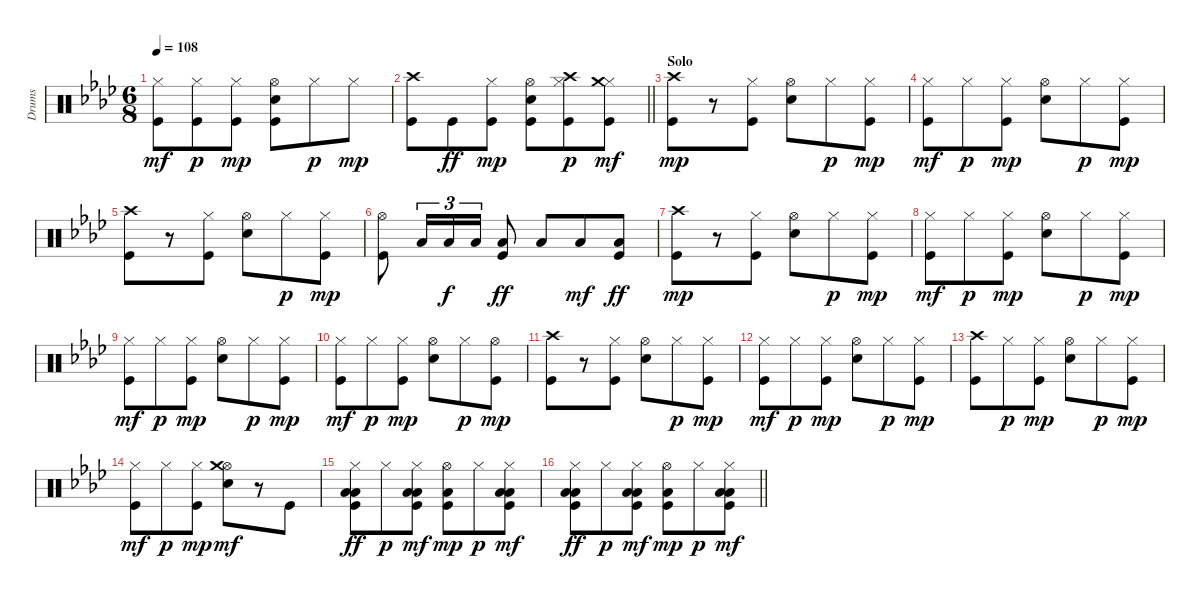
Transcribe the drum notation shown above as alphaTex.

\track ("Drums" "Drums") {instrument percussion}
\staff {score}
\articulation defaults
\ts (6 8)
\tempo 108
\clef neutral
\ks ab
("Kick (hit)" "Hi-Hat (closed)").8{dy mf} ("Kick (hit)" "Hi-Hat (closed)").8{dy p} ("Kick (hit)" "Hi-Hat (closed)").8{dy mp} ("Kick (hit)" "Electric Snare (hit)" "Hi-Hat (open)").8 "Hi-Hat (closed)".8{dy p} "Hi-Hat (closed)".8{dy mp} |
\barLineRight lightlight
("Kick (hit)" "Crash high (hit)").8 "Kick (hit)".8{dy ff} ("Kick (hit)" "Hi-Hat (closed)").8{dy mp} ("Kick (hit)" "Electric Snare (hit)" "Hi-Hat (open)").8 ("Kick (hit)" "Hi-Hat (closed)" "Crash high (hit)").8{dy p} ("Kick (hit)" "Hi-Hat (closed)" "Crash medium (hit)").8{dy mf} |
\section ("" "Solo")
("Kick (hit)" "Crash high (hit)").8{dy mp} r.8 ("Kick (hit)" "Hi-Hat (closed)").8 ("Electric Snare (hit)" "Hi-Hat (open)").8 "Hi-Hat (closed)".8{dy p} ("Kick (hit)" "Hi-Hat (closed)").8{dy mp} |
("Kick (hit)" "Hi-Hat (closed)").8{dy mf} "Hi-Hat (closed)".8{dy p} ("Kick (hit)" "Hi-Hat (closed)").8{dy mp} ("Electric Snare (hit)" "Hi-Hat (open)").8 "Hi-Hat (closed)".8{dy p} ("Kick (hit)" "Hi-Hat (closed)").8{dy mp} |
("Kick (hit)" "Crash high (hit)").8 r.8 ("Kick (hit)" "Hi-Hat (closed)").8 ("Electric Snare (hit)" "Hi-Hat (open)").8 "Hi-Hat (closed)".8{dy p} ("Kick (hit)" "Hi-Hat (closed)").8{dy mp} |
("Kick (hit)" "Hi-Hat (open)").8 "Low Tom (hit)".16{tu (3 2)} "Low Tom (hit)".16{tu (3 2) dy f} "Low Tom (hit)".16{tu (3 2)} ("Kick (hit)" "Low Tom (hit)").8{dy ff} "Low Floor Tom (hit)".8 "Low Floor Tom (hit)".8{dy mf} ("Kick (hit)" "Low Floor Tom (hit)").8{dy ff} |
("Kick (hit)" "Crash high (hit)").8{dy mp} r.8 ("Kick (hit)" "Hi-Hat (closed)").8 ("Electric Snare (hit)" "Hi-Hat (open)").8 "Hi-Hat (closed)".8{dy p} ("Kick (hit)" "Hi-Hat (closed)").8{dy mp} |
("Kick (hit)" "Hi-Hat (closed)").8{dy mf} "Hi-Hat (closed)".8{dy p} ("Kick (hit)" "Hi-Hat (closed)").8{dy mp} ("Electric Snare (hit)" "Hi-Hat (open)").8 "Hi-Hat (closed)".8{dy p} ("Kick (hit)" "Hi-Hat (closed)").8{dy mp} |
("Kick (hit)" "Hi-Hat (closed)").8{dy mf} "Hi-Hat (closed)".8{dy p} ("Kick (hit)" "Hi-Hat (closed)").8{dy mp} ("Electric Snare (hit)" "Hi-Hat (open)").8 "Hi-Hat (closed)".8{dy p} ("Kick (hit)" "Hi-Hat (closed)").8{dy mp} |
("Kick (hit)" "Hi-Hat (closed)").8{dy mf} "Hi-Hat (closed)".8{dy p} ("Kick (hit)" "Hi-Hat (closed)").8{dy mp} ("Electric Snare (hit)" "Hi-Hat (open)").8 "Hi-Hat (closed)".8{dy p} ("Kick (hit)" "Hi-Hat (open)").8{dy mp} |
("Kick (hit)" "Crash high (hit)").8 r.8 ("Kick (hit)" "Hi-Hat (closed)").8 ("Electric Snare (hit)" "Hi-Hat (open)").8 "Hi-Hat (closed)".8{dy p} ("Kick (hit)" "Hi-Hat (closed)").8{dy mp} |
("Kick (hit)" "Hi-Hat (closed)").8{dy mf} "Hi-Hat (closed)".8{dy p} ("Kick (hit)" "Hi-Hat (closed)").8{dy mp} ("Electric Snare (hit)" "Hi-Hat (open)").8 "Hi-Hat (closed)".8{dy p} ("Kick (hit)" "Hi-Hat (closed)").8{dy mp} |
("Kick (hit)" "Crash high (hit)").8 "Hi-Hat (closed)".8{dy p} ("Kick (hit)" "Hi-Hat (closed)").8{dy mp} ("Electric Snare (hit)" "Hi-Hat (open)").8 "Hi-Hat (closed)".8{dy p} ("Kick (hit)" "Hi-Hat (closed)").8{dy mp} |
("Kick (hit)" "Hi-Hat (closed)").8{dy mf} "Hi-Hat (closed)".8{dy p} ("Kick (hit)" "Hi-Hat (closed)").8{dy mp} ("Electric Snare (hit)" "Hi-Hat (open)" "Crash medium (hit)").8{dy mf} r.8 "Kick (hit)".8 |
("Kick (hit)" "Low Floor Tom (hit)" "Hi-Hat (closed)" "Low Tom (hit)").8{dy ff} "Hi-Hat (closed)".8{dy p} ("Kick (hit)" "Low Floor Tom (hit)" "Hi-Hat (closed)" "Low Tom (hit)").8{dy mf} ("Kick (hit)" "Low Floor Tom (hit)" "Hi-Hat (open)").8{dy mp} "Hi-Hat (closed)".8{dy p} ("Kick (hit)" "Low Floor Tom (hit)" "Hi-Hat (closed)" "Low Tom (hit)").8{dy mf} |
\barLineRight lightlight
("Kick (hit)" "Low Floor Tom (hit)" "Hi-Hat (closed)" "Low Tom (hit)").8{dy ff} "Hi-Hat (closed)".8{dy p} ("Kick (hit)" "Low Floor Tom (hit)" "Hi-Hat (closed)" "Low Tom (hit)").8{dy mf} ("Kick (hit)" "Low Floor Tom (hit)" "Hi-Hat (open)").8{dy mp} "Hi-Hat (closed)".8{dy p} ("Kick (hit)" "Low Floor Tom (hit)" "Hi-Hat (closed)" "Low Tom (hit)").8{dy mf}
